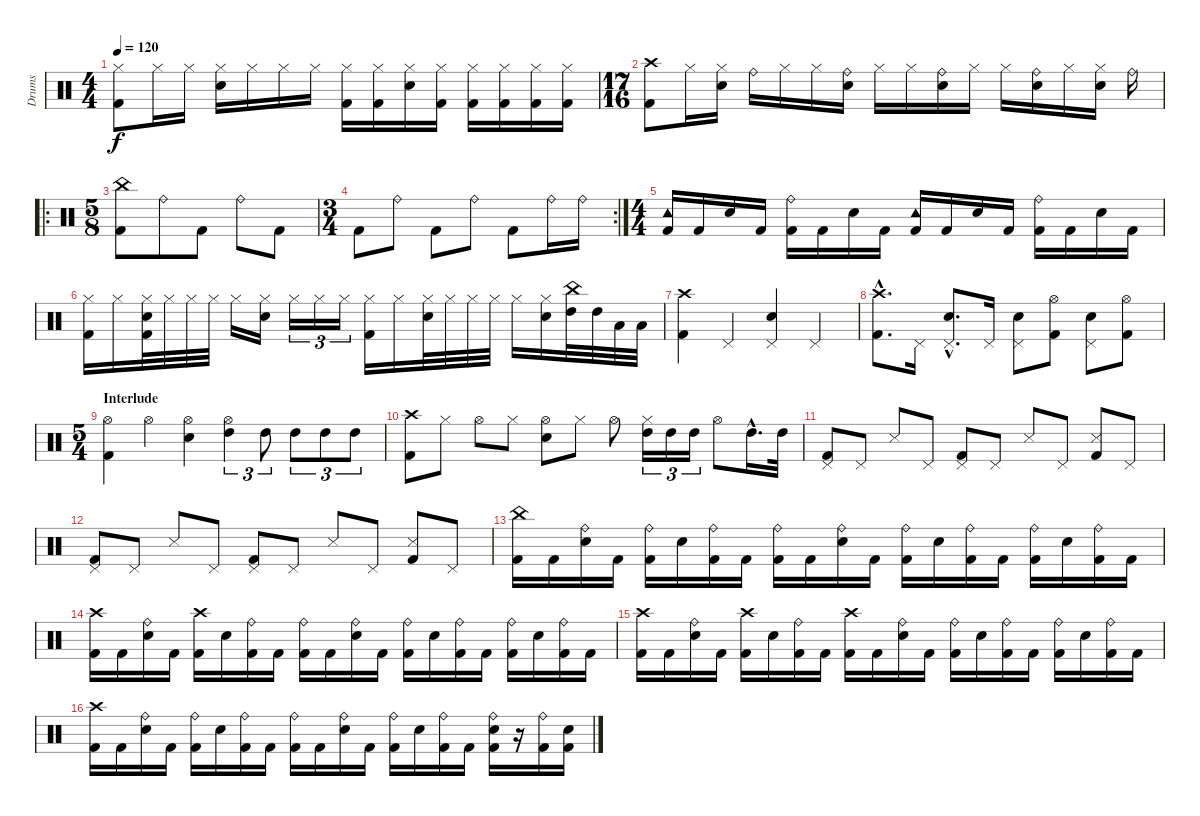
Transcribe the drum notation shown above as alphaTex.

\track ("Drums" "Drums") {instrument percussion}
\staff {score}
\articulation defaults
\ts (4 4)
\tempo 120
\clef neutral
\ks c
("Hi-Hat (closed)" "Kick (hit) 2").8{dy f} "Hi-Hat (closed)".16 "Hi-Hat (closed)".16 ("Hi-Hat (closed)" "Electric Snare (hit)").16 "Hi-Hat (closed)".16 "Hi-Hat (closed)".16 "Hi-Hat (closed)".16 ("Hi-Hat (closed)" "Kick (hit) 2").16 ("Hi-Hat (closed)" "Kick (hit) 2").16 ("Hi-Hat (closed)" "Electric Snare (hit)").16 ("Hi-Hat (closed)" "Kick (hit) 2").16 ("Hi-Hat (closed)" "Kick (hit) 2").16 ("Hi-Hat (closed)" "Kick (hit) 2").16 ("Hi-Hat (closed)" "Kick (hit) 2").16 ("Hi-Hat (closed)" "Kick (hit) 2").16 |
\ts (17 16)
("Crash high (hit)" "Kick (hit) 2").8 "Hi-Hat (closed)".16 ("Hi-Hat (closed)" "Electric Snare (hit)").16 "Ride (bell)".16 "Hi-Hat (closed)".16 "Hi-Hat (closed)".16 ("Ride (bell)" "Electric Snare (hit)").16 "Hi-Hat (closed)".16 "Hi-Hat (closed)".16 ("Ride (bell)" "Electric Snare (hit)").16 "Hi-Hat (closed)".16 "Hi-Hat (closed)".16 ("Ride (bell)" "Electric Snare (hit)").16 "Hi-Hat (closed)".16 ("Hi-Hat (closed)" "Electric Snare (hit)").16 "Ride (bell)".16 |
\ro
\ts (5 8)
("China (hit)" "Kick (hit) 2").8 "Ride (bell)".8 "Kick (hit) 2".8 "Ride (bell)".8 "Kick (hit) 2".8 |
\rc 2
\ts (3 4)
"Kick (hit) 2".8 "Ride (bell)".8 "Kick (hit) 2".8 "Ride (bell)".8 "Kick (hit) 2".8 "Ride (bell)".16 "Ride (bell)".16 |
\ts (4 4)
("Tambourine (hit)" "Kick (hit) 2").16 "Kick (hit) 2".16 "Electric Snare (hit)".16 "Kick (hit) 2".16 ("Ride (bell)" "Kick (hit) 2").16 "Kick (hit) 2".16 "Electric Snare (hit)".16 "Kick (hit) 2".16 ("Tambourine (hit)" "Kick (hit) 2").16 "Kick (hit) 2".16 "Electric Snare (hit)".16 "Kick (hit) 2".16 ("Ride (bell)" "Kick (hit) 2").16 "Kick (hit) 2".16 "Electric Snare (hit)".16 "Kick (hit) 2".16 |
("Hi-Hat (closed)" "Kick (hit) 2").16 "Hi-Hat (closed)".16 ("Hi-Hat (closed)" "Electric Snare (hit)" "Kick (hit) 2").32 "Hi-Hat (closed)".32 "Hi-Hat (closed)".32 "Hi-Hat (closed)".32 "Hi-Hat (closed)".16 ("Hi-Hat (closed)" "Electric Snare (hit)").16 "Hi-Hat (closed)".16{tu (3 2)} "Hi-Hat (closed)".16{tu (3 2)} "Hi-Hat (closed)".16{tu (3 2)} ("Hi-Hat (closed)" "Kick (hit) 2").16 "Hi-Hat (closed)".16 ("Hi-Hat (closed)" "Electric Snare (hit)").32 "Hi-Hat (closed)".32 "Hi-Hat (closed)".32 "Hi-Hat (closed)".32 "Hi-Hat (closed)".16 ("Hi-Hat (closed)" "Electric Snare (hit)").16 ("China (hit)" "High Tom (hit)").32 "High Tom (hit)".32 "Low Tom (hit)".32 "Low Tom (hit)".32 |
("Crash high (hit)" "Kick (hit) 2").4 "Pedal Hi-Hat (hit)".4 ("Pedal Hi-Hat (hit)" "Electric Snare (hit)").4 "Pedal Hi-Hat (hit)".4 |
("Crash high (hit)"{hac} "Kick (hit) 2"{hac}).8{d} "Pedal Hi-Hat (hit)".16 ("Pedal Hi-Hat (hit)"{hac} "Electric Snare (hit)"{hac}).8{d} "Pedal Hi-Hat (hit)".16 ("Pedal Hi-Hat (hit)" "Electric Snare (hit)").8 ("Hi-Hat (open)" "Kick (hit) 2").8 ("Pedal Hi-Hat (hit)" "Electric Snare (hit)").8 ("Hi-Hat (open)" "Kick (hit) 2").8 |
\ts (5 4)
\section ("" "Interlude")
("Hi-Hat (open)" "Kick (hit) 2").4 "Hi-Hat (open)".4 ("Hi-Hat (open)" "Electric Snare (hit)").4 ("Hi-Hat (open)" "High Tom (hit)").4{tu (3 2)} "High Tom (hit)".8{tu (3 2)} "High Tom (hit)".8{tu (3 2)} "High Tom (hit)".8{tu (3 2)} "High Tom (hit)".8{tu (3 2)} |
("Crash high (hit)" "Kick (hit) 2").8 "Hi-Hat (closed)".8 "Hi-Hat (open)".8 "Hi-Hat (closed)".8 ("Hi-Hat (open)" "Electric Snare (hit)").8 "Hi-Hat (closed)".8 "Hi-Hat (open)".8 ("Hi-Hat (closed)" "High Tom (hit)").16{tu (3 2)} "High Tom (hit)".16{tu (3 2)} "High Tom (hit)".16{tu (3 2)} "Hi-Hat (open)".8 "High Tom (hit)"{hac}.16{d} "High Tom (hit)".32 |
("Pedal Hi-Hat (hit)" "Kick (hit) 2").8 "Pedal Hi-Hat (hit)".8 "Snare (side stick) 3".8 "Pedal Hi-Hat (hit)".8 ("Pedal Hi-Hat (hit)" "Kick (hit) 2").8 "Pedal Hi-Hat (hit)".8 "Snare (side stick) 3".8 "Pedal Hi-Hat (hit)".8 ("Snare (side stick) 3" "Kick (hit) 2").8 "Pedal Hi-Hat (hit)".8 |
("Pedal Hi-Hat (hit)" "Kick (hit) 2").8 "Pedal Hi-Hat (hit)".8 "Snare (side stick) 3".8 "Pedal Hi-Hat (hit)".8 ("Pedal Hi-Hat (hit)" "Kick (hit) 2").8 "Pedal Hi-Hat (hit)".8 "Snare (side stick) 3".8 "Pedal Hi-Hat (hit)".8 ("Snare (side stick) 3" "Kick (hit) 2").8 "Pedal Hi-Hat (hit)".8 |
("China (hit)" "Kick (hit) 2").16 "Kick (hit) 2".16 ("Ride (bell)" "Electric Snare (hit)").16 "Kick (hit) 2".16 ("Ride (bell)" "Kick (hit) 2").16 "Electric Snare (hit)".16 ("Ride (bell)" "Kick (hit) 2").16 "Kick (hit) 2".16 ("Ride (bell)" "Kick (hit) 2").16 "Kick (hit) 2".16 ("Ride (bell)" "Electric Snare (hit)").16 "Kick (hit) 2".16 ("Ride (bell)" "Kick (hit) 2").16 "Electric Snare (hit)".16 ("Ride (bell)" "Kick (hit) 2").16 "Kick (hit) 2".16 ("Ride (bell)" "Kick (hit) 2").16 "Electric Snare (hit)".16 ("Ride (bell)" "Kick (hit) 2").16 "Kick (hit) 2".16 |
("Crash high (hit)" "Kick (hit) 2").16 "Kick (hit) 2".16 ("Ride (bell)" "Electric Snare (hit)").16 "Kick (hit) 2".16 ("Crash high (hit)" "Kick (hit) 2").16 "Electric Snare (hit)".16 ("Ride (bell)" "Kick (hit) 2").16 "Kick (hit) 2".16 ("Ride (bell)" "Kick (hit) 2").16 "Kick (hit) 2".16 ("Ride (bell)" "Electric Snare (hit)").16 "Kick (hit) 2".16 ("Ride (bell)" "Kick (hit) 2").16 "Electric Snare (hit)".16 ("Ride (bell)" "Kick (hit) 2").16 "Kick (hit) 2".16 ("Ride (bell)" "Kick (hit) 2").16 "Electric Snare (hit)".16 ("Ride (bell)" "Kick (hit) 2").16 "Kick (hit) 2".16 |
("Crash high (hit)" "Kick (hit) 2").16 "Kick (hit) 2".16 ("Ride (bell)" "Electric Snare (hit)").16 "Kick (hit) 2".16 ("Crash high (hit)" "Kick (hit) 2").16 "Electric Snare (hit)".16 ("Ride (bell)" "Kick (hit) 2").16 "Kick (hit) 2".16 ("Crash high (hit)" "Kick (hit) 2").16 "Kick (hit) 2".16 ("Ride (bell)" "Electric Snare (hit)").16 "Kick (hit) 2".16 ("Ride (bell)" "Kick (hit) 2").16 "Electric Snare (hit)".16 ("Ride (bell)" "Kick (hit) 2").16 "Kick (hit) 2".16 ("Ride (bell)" "Kick (hit) 2").16 "Electric Snare (hit)".16 ("Ride (bell)" "Kick (hit) 2").16 "Kick (hit) 2".16 |
("Crash high (hit)" "Kick (hit) 2").16 "Kick (hit) 2".16 ("Ride (bell)" "Electric Snare (hit)").16 "Kick (hit) 2".16 ("Ride (bell)" "Kick (hit) 2").16 "Electric Snare (hit)".16 ("Ride (bell)" "Kick (hit) 2").16 "Kick (hit) 2".16 ("Ride (bell)" "Kick (hit) 2").16 "Kick (hit) 2".16 ("Ride (bell)" "Electric Snare (hit)").16 "Kick (hit) 2".16 ("Ride (bell)" "Kick (hit) 2").16 "Electric Snare (hit)".16 ("Ride (bell)" "Kick (hit) 2").16 "Kick (hit) 2".16 ("Ride (bell)" "Electric Snare (hit)" "Kick (hit) 2").16 r.16 ("Ride (bell)" "Kick (hit) 2").16 ("Electric Snare (hit)" "Kick (hit) 2").16
